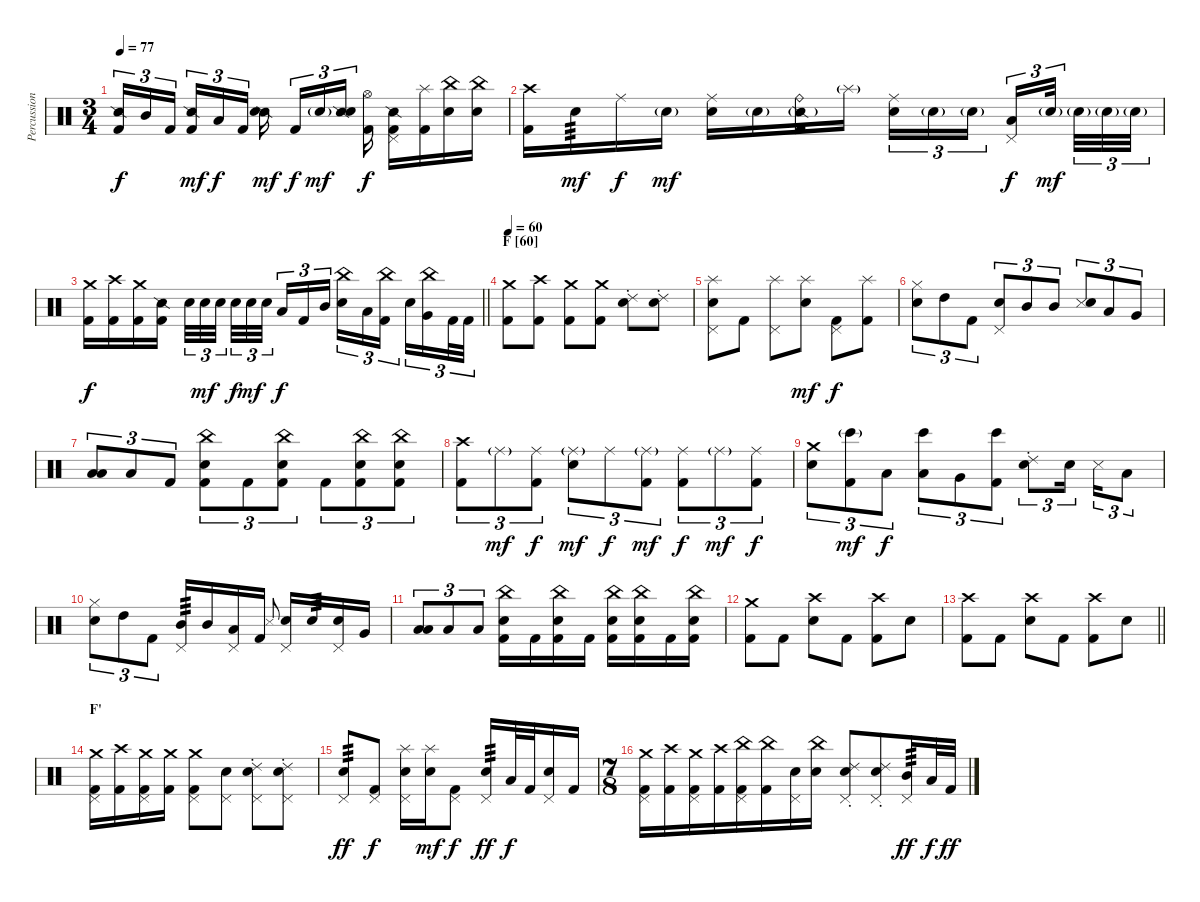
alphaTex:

\track ("Percussion" "Percussion") {instrument percussion}
\staff {score}
\articulation defaults
\ts (3 4)
\tempo 77
\clef neutral
\ks c
("Snare (side stick) 2" "Kick (hit) 2").16{tu (3 2) dy f} "Mid Tom (hit)".16{tu (3 2)} "Kick (hit) 2".16{tu (3 2) beam splitsecondary} ("Snare (side stick) 2" "Kick (hit) 2").16{tu (3 2) dy mf} "Low Tom (hit)".16{tu (3 2) dy f} "Kick (hit) 2".16{tu (3 2)} ("Snare (side stick) 2" "Snare (hit) 2").16{dy mf beam splitsecondary} "Kick (hit) 2".16{tu (3 2) dy f} "Snare (hit) 2"{g}.16{tu (3 2) dy mf} ("Snare (side stick) 2" "Snare (hit) 2").16{tu (3 2) beam splitsecondary} ("Hi-Hat (open)" "Kick (hit) 2").16{dy f} ("Snare (side stick) 2" "Pedal Hi-Hat (hit)" "Kick (hit) 2").16 ("Splash (hit)" "Kick (hit) 2").16 ("China (hit)" "Snare (hit) 2").16 ("China (hit)" "Snare (hit) 2").16 |
("Crash high (hit)" "Kick (hit) 2").16 "Snare (hit) 2".16{tp 3 dy mf} "Ride (middle)".16{dy f} "Snare (hit) 2"{g}.16{dy mf} ("Ride (middle)" "Snare (hit) 2").16 "Snare (hit) 2"{g}.16 ("Ride (bell)" "Snare (side stick) 2"{g} "Kick (hit) 2").16 "Splash (hit)"{g}.16 ("Ride (middle)" "Snare (hit) 2").16{tu (3 2)} "Snare (hit) 2"{g}.16{tu (3 2)} "Snare (hit) 2"{g}.16{tu (3 2) beam splitsecondary} ("Pedal Hi-Hat (hit)" "Low Tom (hit)").16{tu (3 2) dy f} "Snare (hit) 2"{g}.32{tu (3 2) dy mf beam splitsecondary} "Snare (hit) 2"{g}.32{tu (3 2)} "Snare (hit) 2"{g}.32{tu (3 2)} "Snare (hit) 2"{g}.32{tu (3 2)} |
\barLineRight lightlight
("Crash medium (hit)" "Kick (hit) 2").16{dy f} ("Crash high (hit)" "Kick (hit) 2").16 ("Crash medium (hit)" "Kick (hit) 2").16 ("Snare (side stick) 2" "Kick (hit) 2").16 "Snare (hit) 2".32{tu (3 2)} "Snare (hit) 2".32{tu (3 2) dy mf} "Snare (hit) 2".32{tu (3 2) beam splitsecondary} "Snare (hit) 2".32{tu (3 2) dy f} "Snare (hit) 2".32{tu (3 2) dy mf} "Snare (hit) 2".32{tu (3 2) beam splitsecondary} "Low Tom (hit)".16{tu (3 2) dy f} "Kick (hit) 2".16{tu (3 2)} "Mid Tom (hit)".16{tu (3 2)} ("China (hit)" "Snare (hit) 2").16{tu (3 2)} "Low Tom (hit)".16{tu (3 2)} ("China (hit)" "Kick (hit) 2").16{tu (3 2) beam splitsecondary} "Snare (hit) 2".16{tu (3 2)} ("China (hit)" "Very Low Tom (hit)").16{tu (3 2)} "Kick (hit) 2".32{tu (3 2)} "Kick (hit) 2".32{tu (3 2)} |
\section ("" "F [60]")
\tempo 60
("Crash medium (hit)" "Kick (hit) 2").8 ("Crash high (hit)" "Kick (hit) 2").8 ("Crash medium (hit)" "Kick (hit) 2").8 ("Crash medium (hit)" "Kick (hit) 2").8 ("Ride (choke) 2" "Snare (hit) 2").8 ("Ride (choke) 2" "Snare (hit) 2").8 |
("Splash (hit)" "Pedal Hi-Hat (hit)" "Snare (hit) 2").8 "Kick (hit) 2".8 ("Splash (hit)" "Pedal Hi-Hat (hit)").8 ("Splash (hit)" "Snare (hit) 2").8{dy mf} ("Pedal Hi-Hat (hit)" "Kick (hit) 2").8{dy f} ("Splash (hit)" "Kick (hit) 2").8 |
("Hi-Hat (closed)" "Snare (hit) 2").8{tu (3 2)} "High Tom (hit)".8{tu (3 2)} "Kick (hit) 2".8{tu (3 2)} ("Pedal Hi-Hat (hit)" "Snare (hit) 2").8{tu (3 2)} "Mid Tom (hit)".8{tu (3 2)} "Mid Tom (hit)".8{tu (3 2)} ("Metronome (hit)" "Snare (hit) 2").8{tu (3 2) bu 480} "Low Tom (hit)".8{tu (3 2)} "Very Low Tom (hit)".8{tu (3 2)} |
("Low Floor Tom (hit)" "Low Floor Tom (hit)").8{tu (3 2) bu 480} "Low Floor Tom (hit)".8{tu (3 2)} "Kick (hit) 2".8{tu (3 2)} ("China (hit)" "Snare (hit) 2" "Kick (hit) 2").8{tu (3 2)} "Kick (hit) 2".8{tu (3 2)} ("China (hit)" "Snare (hit) 2" "Kick (hit) 2").8{tu (3 2)} "Kick (hit) 2".8{tu (3 2)} ("China (hit)" "Snare (hit) 2" "Kick (hit) 2").8{tu (3 2)} ("China (hit)" "Snare (hit) 2" "Kick (hit) 2").8{tu (3 2)} |
("Crash high (hit)" "Kick (hit) 2").8{tu (3 2)} "Ride (middle)"{g}.8{tu (3 2) dy mf} ("Ride (middle)" "Kick (hit) 2").8{tu (3 2) dy f} ("Ride (middle)"{g} "Snare (hit) 2").8{tu (3 2) dy mf} "Ride (middle)".8{tu (3 2) dy f} ("Ride (middle)"{g} "Kick (hit) 2").8{tu (3 2) dy mf} ("Ride (middle)" "Kick (hit) 2").8{tu (3 2) dy f} "Ride (middle)"{g}.8{tu (3 2) dy mf} ("Ride (middle)" "Kick (hit) 2").8{tu (3 2) dy f} |
("Crash medium (hit)" "Snare (hit) 2").8{tu (3 2)} ("Bongo High (hit)"{g} "Kick (hit) 2").8{tu (3 2) dy mf} "Low Tom (hit)".8{tu (3 2) dy f} ("Bongo High (hit)" "Low Tom (hit)").8{tu (3 2)} "Very Low Tom (hit)".8{tu (3 2)} ("Bongo High (hit)" "Kick (hit) 2").8{tu (3 2)} ("Ride (choke) 2" "Snare (hit) 2").8{tu (3 2)} "Snare (hit) 2".16{tu (3 2) beam splitsecondary} "Metronome (hit)".16{tu (3 2)} "Low Tom (hit)".8{tu (3 2)} |
("Hi-Hat (closed)" "Snare (hit) 2").8{tu (3 2)} "High Tom (hit)".8{tu (3 2)} "Kick (hit) 2".8{tu (3 2)} ("Pedal Hi-Hat (hit)" "Mid Tom (hit)").16{tp 3} "Mid Tom (hit)".16 ("Pedal Hi-Hat (hit)" "Low Tom (hit)").16 "Kick (hit) 2".16 "Metronome (hit)".8{gr onbeat} ("Pedal Hi-Hat (hit)" "Snare (hit) 2").16 "Snare (hit) 2".16{tp 3} ("Pedal Hi-Hat (hit)" "Snare (hit) 2").16 "Very Low Tom (hit)".16 |
("Low Floor Tom (hit)" "Low Floor Tom (hit)").8{tu (3 2) bu 480} "Low Floor Tom (hit)".8{tu (3 2)} "Low Floor Tom (hit)".8{tu (3 2)} ("China (hit)" "Snare (hit) 2" "Kick (hit) 2").16 "Kick (hit) 2".16 ("China (hit)" "Snare (hit) 2" "Kick (hit) 2").16 "Kick (hit) 2".16 ("China (hit)" "Snare (hit) 2" "Kick (hit) 2").16 ("China (hit)" "Snare (hit) 2" "Kick (hit) 2").16 "Kick (hit) 2".16 ("China (hit)" "Snare (hit) 2" "Kick (hit) 2").16 |
("Crash medium (hit)" "Kick (hit) 2").8 "Kick (hit) 2".8 ("Crash high (hit)" "Snare (hit) 2").8 "Kick (hit) 2".8 ("Crash high (hit)" "Kick (hit) 2").8 "Snare (hit) 2".8 |
\barLineRight lightlight
("Crash high (hit)" "Kick (hit) 2").8 "Kick (hit) 2".8 ("Crash high (hit)" "Snare (hit) 2").8 "Kick (hit) 2".8 ("Crash high (hit)" "Kick (hit) 2").8 "Snare (hit) 2".8 |
\section ("" "F'")
("Crash medium (hit)" "Pedal Hi-Hat (hit)" "Kick (hit) 2").16 ("Crash high (hit)" "Kick (hit) 2").16 ("Crash medium (hit)" "Pedal Hi-Hat (hit)" "Kick (hit) 2").16 ("Crash medium (hit)" "Kick (hit) 2").16 ("Crash medium (hit)" "Pedal Hi-Hat (hit)" "Kick (hit) 2").8 ("Pedal Hi-Hat (hit)" "Snare (hit) 2").8 ("Ride (choke) 2" "Pedal Hi-Hat (hit)" "Snare (hit) 2").8 ("Ride (choke) 2" "Pedal Hi-Hat (hit)" "Snare (hit) 2").8 |
("Pedal Hi-Hat (hit)" "Snare (hit) 2").8{tp 3 dy ff} ("Pedal Hi-Hat (hit)" "Kick (hit) 2").8{dy f} ("Splash (hit)" "Pedal Hi-Hat (hit)" "Snare (hit) 2").16 ("Splash (hit)" "Snare (hit) 2").16{dy mf} ("Pedal Hi-Hat (hit)" "Kick (hit) 2").8{dy f} ("Pedal Hi-Hat (hit)" "Snare (hit) 2").16{tp 3 dy ff} "Low Tom (hit)".32{dy f} "Kick (hit) 2".32 ("Pedal Hi-Hat (hit)" "Snare (hit) 2").16 "Kick (hit) 2".16 |
\ts (7 8)
("Crash medium (hit)" "Pedal Hi-Hat (hit)" "Kick (hit) 2").16 ("Crash high (hit)" "Kick (hit) 2").16 ("Crash medium (hit)" "Pedal Hi-Hat (hit)" "Kick (hit) 2").16 ("Crash high (hit)" "Kick (hit) 2").16 ("China (hit)" "Pedal Hi-Hat (hit)" "Kick (hit) 2").16 ("China (hit)" "Kick (hit) 2").16 ("Pedal Hi-Hat (hit)" "Snare (hit) 2").16 ("China (hit)" "Snare (hit) 2").16 ("Ride (choke) 2" "Pedal Hi-Hat (hit)" "Snare (hit) 2").8 ("Ride (choke) 2" "Pedal Hi-Hat (hit)" "Snare (hit) 2").8 ("Pedal Hi-Hat (hit)" "Mid Tom (hit)").16{tp 3 dy ff} "Low Tom (hit)".32{dy f} "Kick (hit) 2".32{dy ff}
